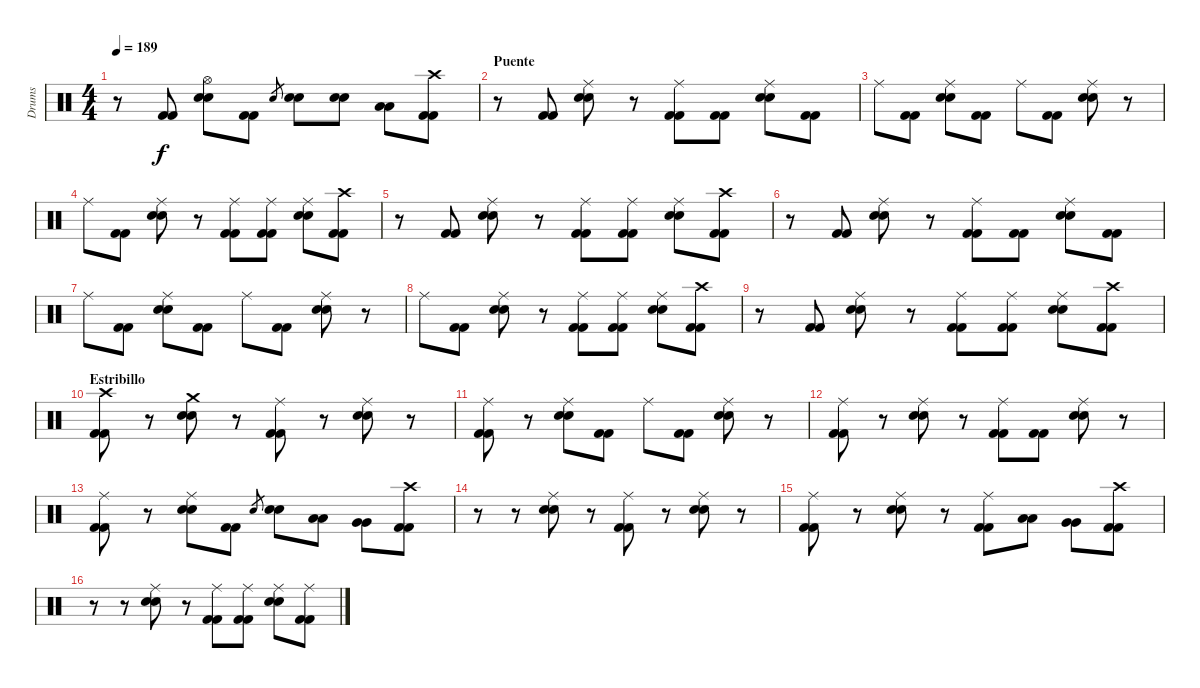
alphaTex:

\track ("Drums" "Drums") {instrument percussion}
\staff {score}
\articulation defaults
\ts (4 4)
\tempo 189
\clef neutral
\ks c
r.8{dy f} ("Kick (hit) 2" "Kick (hit) 2").8 ("Hi-Hat (open)" "Snare (hit) 2" "Snare (hit) 2").8 ("Kick (hit) 2" "Kick (hit) 2").8 "Snare (hit) 2".8{gr} ("Snare (hit) 2" "Snare (hit) 2").8 ("Snare (hit) 2" "Snare (hit) 2").8 ("Low Tom (hit)" "Low Tom (hit)").8 ("Crash high (hit)" "Kick (hit) 2" "Kick (hit) 2").8 |
\section ("" "Puente")
r.8 ("Kick (hit) 2" "Kick (hit) 2").8 ("Ride (middle)" "Snare (hit) 2" "Snare (hit) 2").8 r.8 ("Ride (middle)" "Kick (hit) 2" "Kick (hit) 2").8 ("Kick (hit) 2" "Kick (hit) 2").8 ("Ride (middle)" "Snare (hit) 2" "Snare (hit) 2").8 ("Kick (hit) 2" "Kick (hit) 2").8 |
"Ride (middle)".8 ("Kick (hit) 2" "Kick (hit) 2").8 ("Ride (middle)" "Snare (hit) 2" "Snare (hit) 2").8 ("Kick (hit) 2" "Kick (hit) 2").8 "Ride (middle)".8 ("Kick (hit) 2" "Kick (hit) 2").8 ("Ride (middle)" "Snare (hit) 2" "Snare (hit) 2").8 r.8 |
"Ride (middle)".8 ("Kick (hit) 2" "Kick (hit) 2").8 ("Ride (middle)" "Snare (hit) 2" "Snare (hit) 2").8 r.8 ("Ride (middle)" "Kick (hit) 2" "Kick (hit) 2").8 ("Ride (middle)" "Kick (hit) 2" "Kick (hit) 2").8 ("Ride (middle)" "Snare (hit) 2" "Snare (hit) 2").8 ("Crash high (hit)" "Kick (hit) 2" "Kick (hit) 2").8 |
r.8 ("Kick (hit) 2" "Kick (hit) 2").8 ("Ride (middle)" "Snare (hit) 2" "Snare (hit) 2").8 r.8 ("Ride (middle)" "Kick (hit) 2" "Kick (hit) 2").8 ("Ride (middle)" "Kick (hit) 2" "Kick (hit) 2").8 ("Ride (middle)" "Snare (hit) 2" "Snare (hit) 2").8 ("Crash high (hit)" "Kick (hit) 2" "Kick (hit) 2").8 |
r.8 ("Kick (hit) 2" "Kick (hit) 2").8 ("Ride (middle)" "Snare (hit) 2" "Snare (hit) 2").8 r.8 ("Ride (middle)" "Kick (hit) 2" "Kick (hit) 2").8 ("Kick (hit) 2" "Kick (hit) 2").8 ("Ride (middle)" "Snare (hit) 2" "Snare (hit) 2").8 ("Kick (hit) 2" "Kick (hit) 2").8 |
"Ride (middle)".8 ("Kick (hit) 2" "Kick (hit) 2").8 ("Ride (middle)" "Snare (hit) 2" "Snare (hit) 2").8 ("Kick (hit) 2" "Kick (hit) 2").8 "Ride (middle)".8 ("Kick (hit) 2" "Kick (hit) 2").8 ("Ride (middle)" "Snare (hit) 2" "Snare (hit) 2").8 r.8 |
"Ride (middle)".8 ("Kick (hit) 2" "Kick (hit) 2").8 ("Ride (middle)" "Snare (hit) 2" "Snare (hit) 2").8 r.8 ("Ride (middle)" "Kick (hit) 2" "Kick (hit) 2").8 ("Ride (middle)" "Kick (hit) 2" "Kick (hit) 2").8 ("Ride (middle)" "Snare (hit) 2" "Snare (hit) 2").8 ("Crash high (hit)" "Kick (hit) 2" "Kick (hit) 2").8 |
r.8 ("Kick (hit) 2" "Kick (hit) 2").8 ("Ride (middle)" "Snare (hit) 2" "Snare (hit) 2").8 r.8 ("Ride (middle)" "Kick (hit) 2" "Kick (hit) 2").8 ("Ride (middle)" "Kick (hit) 2" "Kick (hit) 2").8 ("Ride (middle)" "Snare (hit) 2" "Snare (hit) 2").8 ("Crash high (hit)" "Kick (hit) 2" "Kick (hit) 2").8 |
\section ("" "Estribillo")
("Crash high (hit)" "Kick (hit) 2" "Kick (hit) 2").8 r.8 ("Crash medium (hit)" "Snare (hit) 2" "Snare (hit) 2").8 r.8 ("Ride (middle)" "Kick (hit) 2" "Kick (hit) 2").8 r.8 ("Ride (middle)" "Snare (hit) 2" "Snare (hit) 2").8 r.8 |
("Ride (middle)" "Kick (hit) 2" "Kick (hit) 2").8 r.8 ("Ride (middle)" "Snare (hit) 2" "Snare (hit) 2").8 ("Kick (hit) 2" "Kick (hit) 2").8 "Ride (middle)".8 ("Kick (hit) 2" "Kick (hit) 2").8 ("Ride (middle)" "Snare (hit) 2" "Snare (hit) 2").8 r.8 |
("Ride (middle)" "Kick (hit) 2" "Kick (hit) 2").8 r.8 ("Ride (middle)" "Snare (hit) 2" "Snare (hit) 2").8 r.8 ("Ride (middle)" "Kick (hit) 2" "Kick (hit) 2").8 ("Kick (hit) 2" "Kick (hit) 2").8 ("Ride (middle)" "Snare (hit) 2" "Snare (hit) 2").8 r.8 |
("Ride (middle)" "Kick (hit) 2" "Kick (hit) 2").8 r.8 ("Ride (middle)" "Snare (hit) 2" "Snare (hit) 2").8 ("Kick (hit) 2" "Kick (hit) 2").8 "Snare (hit) 2".8{gr} ("Snare (hit) 2" "Snare (hit) 2").8 ("Low Tom (hit)" "Low Tom (hit)").8 ("Very Low Tom (hit)" "Very Low Tom (hit)").8 ("Crash high (hit)" "Kick (hit) 2" "Kick (hit) 2").8 |
r.8 r.8 ("Ride (middle)" "Snare (hit) 2" "Snare (hit) 2").8 r.8 ("Ride (middle)" "Kick (hit) 2" "Kick (hit) 2").8 r.8 ("Ride (middle)" "Snare (hit) 2" "Snare (hit) 2").8 r.8 |
("Ride (middle)" "Kick (hit) 2" "Kick (hit) 2").8 r.8 ("Ride (middle)" "Snare (hit) 2" "Snare (hit) 2").8 r.8 ("Ride (middle)" "Kick (hit) 2" "Kick (hit) 2").8 ("Low Tom (hit)" "Low Tom (hit)").8 ("Very Low Tom (hit)" "Very Low Tom (hit)").8 ("Crash high (hit)" "Kick (hit) 2" "Kick (hit) 2").8 |
r.8 r.8 ("Ride (middle)" "Snare (hit) 2" "Snare (hit) 2").8 r.8 ("Ride (middle)" "Kick (hit) 2" "Kick (hit) 2").8 ("Ride (middle)" "Kick (hit) 2" "Kick (hit) 2").8 ("Ride (middle)" "Snare (hit) 2" "Snare (hit) 2").8 ("Ride (middle)" "Kick (hit) 2" "Kick (hit) 2").8
